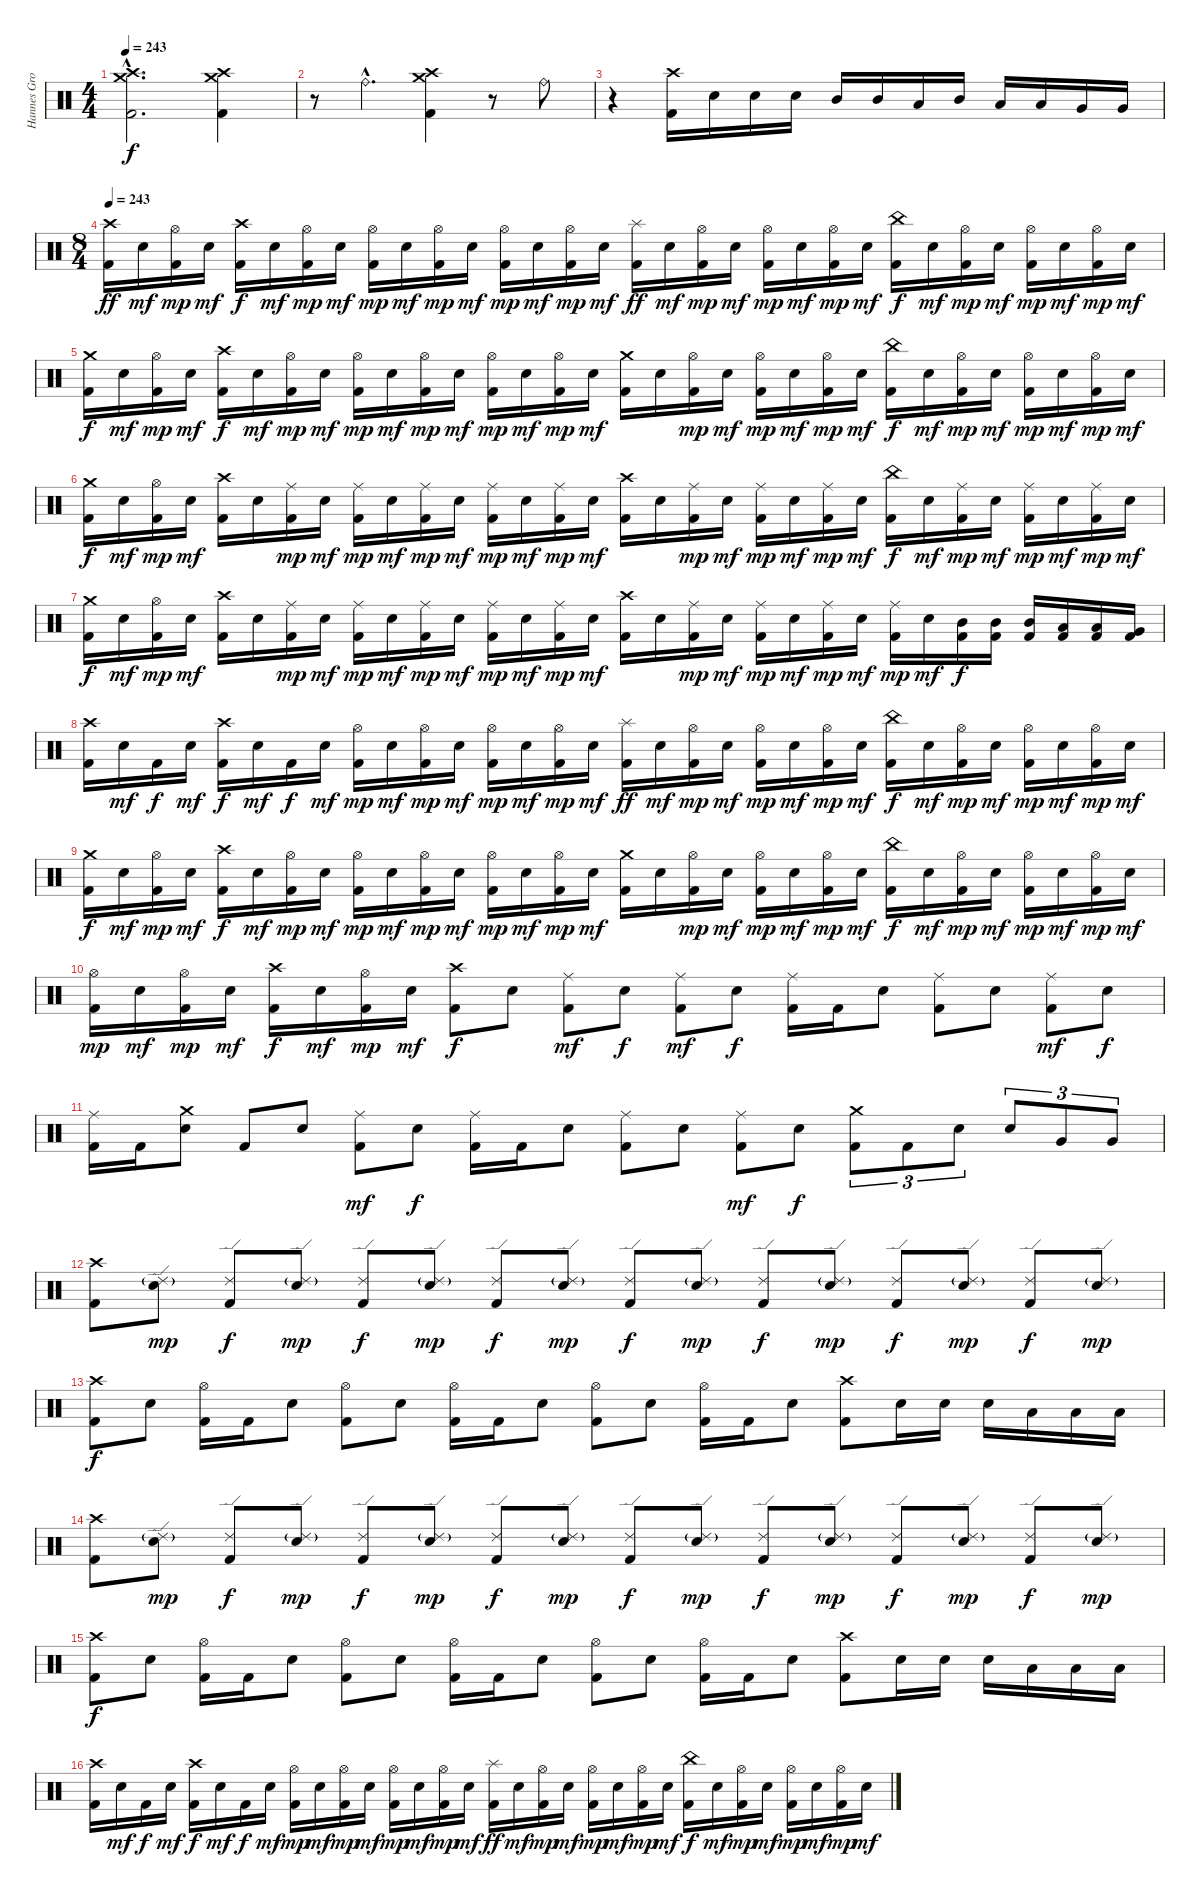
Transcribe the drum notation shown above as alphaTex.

\track ("Hannes Grossmann" "Hannes Gro") {instrument percussion}
\staff {score}
\articulation defaults
\ts (4 4)
\tempo 243
\tempo 163
\tempo 243
\clef neutral
\ks c
("Crash high (hit)"{hac} "Crash medium (hit)"{hac} "Kick (hit) 2"{hac}).2{d dy f} ("Crash high (hit)" "Crash medium (hit)" "Kick (hit) 2").4 |
r.8 "Ride (bell)"{hac}.4{d} ("Crash high (hit)" "Crash medium (hit)" "Kick (hit) 2").4 r.8 "Ride (bell)".8 |
r.4 ("Crash high (hit)" "Kick (hit) 2").16 "Snare (hit) 2".16 "Snare (hit) 2".16 "Snare (hit) 2".16 "Mid Tom (hit)".16 "Mid Tom (hit)".16 "Low Tom (hit)".16 "Mid Tom (hit)".16 "Low Tom (hit)".16 "Low Tom (hit)".16 "Very Low Tom (hit)".16 "Very Low Tom (hit)".16 |
\ts (8 4)
\tempo 243
("Crash high (hit)" "Kick (hit) 2").16{dy ff} "Snare (hit) 2".16{dy mf} ("Hi-Hat (open)" "Kick (hit) 2").16{dy mp} "Snare (hit) 2".16{dy mf} ("Crash high (hit)" "Kick (hit) 2").16{dy f} "Snare (hit) 2".16{dy mf} ("Hi-Hat (open)" "Kick (hit) 2").16{dy mp} "Snare (hit) 2".16{dy mf} ("Hi-Hat (open)" "Kick (hit) 2").16{dy mp} "Snare (hit) 2".16{dy mf} ("Hi-Hat (open)" "Kick (hit) 2").16{dy mp} "Snare (hit) 2".16{dy mf} ("Hi-Hat (open)" "Kick (hit) 2").16{dy mp} "Snare (hit) 2".16{dy mf} ("Hi-Hat (open)" "Kick (hit) 2").16{dy mp} "Snare (hit) 2".16{dy mf} ("Splash (hit)" "Kick (hit) 2").16{dy ff} "Snare (hit) 2".16{dy mf} ("Hi-Hat (open)" "Kick (hit) 2").16{dy mp} "Snare (hit) 2".16{dy mf} ("Hi-Hat (open)" "Kick (hit) 2").16{dy mp} "Snare (hit) 2".16{dy mf} ("Hi-Hat (open)" "Kick (hit) 2").16{dy mp} "Snare (hit) 2".16{dy mf} ("China (hit)" "Kick (hit) 2").16{dy f} "Snare (hit) 2".16{dy mf} ("Hi-Hat (open)" "Kick (hit) 2").16{dy mp} "Snare (hit) 2".16{dy mf} ("Hi-Hat (open)" "Kick (hit) 2").16{dy mp} "Snare (hit) 2".16{dy mf} ("Hi-Hat (open)" "Kick (hit) 2").16{dy mp} "Snare (hit) 2".16{dy mf} |
("Crash medium (hit)" "Kick (hit) 2").16{dy f} "Snare (hit) 2".16{dy mf} ("Hi-Hat (open)" "Kick (hit) 2").16{dy mp} "Snare (hit) 2".16{dy mf} ("Crash high (hit)" "Kick (hit) 2").16{dy f} "Snare (hit) 2".16{dy mf} ("Hi-Hat (open)" "Kick (hit) 2").16{dy mp} "Snare (hit) 2".16{dy mf} ("Hi-Hat (open)" "Kick (hit) 2").16{dy mp} "Snare (hit) 2".16{dy mf} ("Hi-Hat (open)" "Kick (hit) 2").16{dy mp} "Snare (hit) 2".16{dy mf} ("Hi-Hat (open)" "Kick (hit) 2").16{dy mp} "Snare (hit) 2".16{dy mf} ("Hi-Hat (open)" "Kick (hit) 2").16{dy mp} "Snare (hit) 2".16{dy mf} ("Crash medium (hit)" "Kick (hit) 2").16 "Snare (hit) 2".16 ("Hi-Hat (open)" "Kick (hit) 2").16{dy mp} "Snare (hit) 2".16{dy mf} ("Hi-Hat (open)" "Kick (hit) 2").16{dy mp} "Snare (hit) 2".16{dy mf} ("Hi-Hat (open)" "Kick (hit) 2").16{dy mp} "Snare (hit) 2".16{dy mf} ("China (hit)" "Kick (hit) 2").16{dy f} "Snare (hit) 2".16{dy mf} ("Hi-Hat (open)" "Kick (hit) 2").16{dy mp} "Snare (hit) 2".16{dy mf} ("Hi-Hat (open)" "Kick (hit) 2").16{dy mp} "Snare (hit) 2".16{dy mf} ("Hi-Hat (open)" "Kick (hit) 2").16{dy mp} "Snare (hit) 2".16{dy mf} |
("Crash medium (hit)" "Kick (hit) 2").16{dy f} "Snare (hit) 2".16{dy mf} ("Hi-Hat (open)" "Kick (hit) 2").16{dy mp} "Snare (hit) 2".16{dy mf} ("Crash high (hit)" "Kick (hit) 2").16 "Snare (hit) 2".16 ("Ride (middle)" "Kick (hit) 2").16{dy mp} "Snare (hit) 2".16{dy mf} ("Ride (middle)" "Kick (hit) 2").16{dy mp} "Snare (hit) 2".16{dy mf} ("Ride (middle)" "Kick (hit) 2").16{dy mp} "Snare (hit) 2".16{dy mf} ("Ride (middle)" "Kick (hit) 2").16{dy mp} "Snare (hit) 2".16{dy mf} ("Ride (middle)" "Kick (hit) 2").16{dy mp} "Snare (hit) 2".16{dy mf} ("Crash high (hit)" "Kick (hit) 2").16 "Snare (hit) 2".16 ("Ride (middle)" "Kick (hit) 2").16{dy mp} "Snare (hit) 2".16{dy mf} ("Ride (middle)" "Kick (hit) 2").16{dy mp} "Snare (hit) 2".16{dy mf} ("Ride (middle)" "Kick (hit) 2").16{dy mp} "Snare (hit) 2".16{dy mf} ("China (hit)" "Kick (hit) 2").16{dy f} "Snare (hit) 2".16{dy mf} ("Ride (middle)" "Kick (hit) 2").16{dy mp} "Snare (hit) 2".16{dy mf} ("Ride (middle)" "Kick (hit) 2").16{dy mp} "Snare (hit) 2".16{dy mf} ("Ride (middle)" "Kick (hit) 2").16{dy mp} "Snare (hit) 2".16{dy mf} |
("Crash medium (hit)" "Kick (hit) 2").16{dy f} "Snare (hit) 2".16{dy mf} ("Hi-Hat (open)" "Kick (hit) 2").16{dy mp} "Snare (hit) 2".16{dy mf} ("Crash high (hit)" "Kick (hit) 2").16 "Snare (hit) 2".16 ("Ride (middle)" "Kick (hit) 2").16{dy mp} "Snare (hit) 2".16{dy mf} ("Ride (middle)" "Kick (hit) 2").16{dy mp} "Snare (hit) 2".16{dy mf} ("Ride (middle)" "Kick (hit) 2").16{dy mp} "Snare (hit) 2".16{dy mf} ("Ride (middle)" "Kick (hit) 2").16{dy mp} "Snare (hit) 2".16{dy mf} ("Ride (middle)" "Kick (hit) 2").16{dy mp} "Snare (hit) 2".16{dy mf} ("Crash high (hit)" "Kick (hit) 2").16 "Snare (hit) 2".16 ("Ride (middle)" "Kick (hit) 2").16{dy mp} "Snare (hit) 2".16{dy mf} ("Ride (middle)" "Kick (hit) 2").16{dy mp} "Snare (hit) 2".16{dy mf} ("Ride (middle)" "Kick (hit) 2").16{dy mp} "Snare (hit) 2".16{dy mf} ("Ride (middle)" "Kick (hit) 2").16{dy mp} "Snare (hit) 2".16{dy mf} ("Mid Tom (hit)" "Kick (hit) 2").16{dy f} ("Mid Tom (hit)" "Kick (hit) 2").16 ("Mid Tom (hit)" "Kick (hit) 2").16 ("Low Tom (hit)" "Kick (hit) 2").16 ("Low Tom (hit)" "Kick (hit) 2").16 ("Very Low Tom (hit)" "Kick (hit) 2").16 |
("Crash high (hit)" "Kick (hit) 2").16 "Snare (hit) 2".16{dy mf} "Kick (hit) 2".16{dy f} "Snare (hit) 2".16{dy mf} ("Crash high (hit)" "Kick (hit) 2").16{dy f} "Snare (hit) 2".16{dy mf} "Kick (hit) 2".16{dy f} "Snare (hit) 2".16{dy mf} ("Hi-Hat (open)" "Kick (hit) 2").16{dy mp} "Snare (hit) 2".16{dy mf} ("Hi-Hat (open)" "Kick (hit) 2").16{dy mp} "Snare (hit) 2".16{dy mf} ("Hi-Hat (open)" "Kick (hit) 2").16{dy mp} "Snare (hit) 2".16{dy mf} ("Hi-Hat (open)" "Kick (hit) 2").16{dy mp} "Snare (hit) 2".16{dy mf} ("Splash (hit)" "Kick (hit) 2").16{dy ff} "Snare (hit) 2".16{dy mf} ("Hi-Hat (open)" "Kick (hit) 2").16{dy mp} "Snare (hit) 2".16{dy mf} ("Hi-Hat (open)" "Kick (hit) 2").16{dy mp} "Snare (hit) 2".16{dy mf} ("Hi-Hat (open)" "Kick (hit) 2").16{dy mp} "Snare (hit) 2".16{dy mf} ("China (hit)" "Kick (hit) 2").16{dy f} "Snare (hit) 2".16{dy mf} ("Hi-Hat (open)" "Kick (hit) 2").16{dy mp} "Snare (hit) 2".16{dy mf} ("Hi-Hat (open)" "Kick (hit) 2").16{dy mp} "Snare (hit) 2".16{dy mf} ("Hi-Hat (open)" "Kick (hit) 2").16{dy mp} "Snare (hit) 2".16{dy mf} |
("Crash medium (hit)" "Kick (hit) 2").16{dy f} "Snare (hit) 2".16{dy mf} ("Hi-Hat (open)" "Kick (hit) 2").16{dy mp} "Snare (hit) 2".16{dy mf} ("Crash high (hit)" "Kick (hit) 2").16{dy f} "Snare (hit) 2".16{dy mf} ("Hi-Hat (open)" "Kick (hit) 2").16{dy mp} "Snare (hit) 2".16{dy mf} ("Hi-Hat (open)" "Kick (hit) 2").16{dy mp} "Snare (hit) 2".16{dy mf} ("Hi-Hat (open)" "Kick (hit) 2").16{dy mp} "Snare (hit) 2".16{dy mf} ("Hi-Hat (open)" "Kick (hit) 2").16{dy mp} "Snare (hit) 2".16{dy mf} ("Hi-Hat (open)" "Kick (hit) 2").16{dy mp} "Snare (hit) 2".16{dy mf} ("Crash medium (hit)" "Kick (hit) 2").16 "Snare (hit) 2".16 ("Hi-Hat (open)" "Kick (hit) 2").16{dy mp} "Snare (hit) 2".16{dy mf} ("Hi-Hat (open)" "Kick (hit) 2").16{dy mp} "Snare (hit) 2".16{dy mf} ("Hi-Hat (open)" "Kick (hit) 2").16{dy mp} "Snare (hit) 2".16{dy mf} ("China (hit)" "Kick (hit) 2").16{dy f} "Snare (hit) 2".16{dy mf} ("Hi-Hat (open)" "Kick (hit) 2").16{dy mp} "Snare (hit) 2".16{dy mf} ("Hi-Hat (open)" "Kick (hit) 2").16{dy mp} "Snare (hit) 2".16{dy mf} ("Hi-Hat (open)" "Kick (hit) 2").16{dy mp} "Snare (hit) 2".16{dy mf} |
("Hi-Hat (open)" "Kick (hit) 2").16{dy mp} "Snare (hit) 2".16{dy mf} ("Hi-Hat (open)" "Kick (hit) 2").16{dy mp} "Snare (hit) 2".16{dy mf} ("Crash high (hit)" "Kick (hit) 2").16{dy f} "Snare (hit) 2".16{dy mf} ("Hi-Hat (open)" "Kick (hit) 2").16{dy mp} "Snare (hit) 2".16{dy mf} ("Crash high (hit)" "Kick (hit) 2").8{dy f} "Snare (hit) 2".8 ("Ride (middle)" "Kick (hit) 2").8{dy mf} "Snare (hit) 2".8{dy f} ("Ride (middle)" "Kick (hit) 2").8{dy mf} "Snare (hit) 2".8{dy f} ("Ride (middle)" "Kick (hit) 2").16 "Kick (hit) 2".16 "Snare (hit) 2".8 ("Ride (middle)" "Kick (hit) 2").8 "Snare (hit) 2".8 ("Ride (middle)" "Kick (hit) 2").8{dy mf} "Snare (hit) 2".8{dy f} |
("Ride (middle)" "Kick (hit) 2").16 "Kick (hit) 2".16 ("Crash medium (hit)" "Snare (hit) 2").8 "Kick (hit) 2".8 "Snare (hit) 2".8 ("Ride (middle)" "Kick (hit) 2").8{dy mf} "Snare (hit) 2".8{dy f} ("Ride (middle)" "Kick (hit) 2").16 "Kick (hit) 2".16 "Snare (hit) 2".8 ("Ride (middle)" "Kick (hit) 2").8 "Snare (hit) 2".8 ("Ride (middle)" "Kick (hit) 2").8{dy mf} "Snare (hit) 2".8{dy f} ("Crash medium (hit)" "Kick (hit) 2").8{tu (3 2)} "Kick (hit) 2".8{tu (3 2)} "Snare (hit) 2".8{tu (3 2)} "Snare (hit) 2".8{tu (3 2)} "Very Low Tom (hit)".8{tu (3 2)} "Very Low Tom (hit)".8{tu (3 2)} |
("Crash high (hit)" "Kick (hit) 2").8 ("Ride (edge) 2"{g} "Snare (hit) 2").8{dy mp} ("Ride (edge) 2" "Kick (hit) 2").8{dy f} ("Ride (edge) 2"{g} "Snare (hit) 2").8{dy mp} ("Ride (edge) 2" "Kick (hit) 2").8{dy f} ("Ride (edge) 2"{g} "Snare (hit) 2").8{dy mp} ("Ride (edge) 2" "Kick (hit) 2").8{dy f} ("Ride (edge) 2"{g} "Snare (hit) 2").8{dy mp} ("Ride (edge) 2" "Kick (hit) 2").8{dy f} ("Ride (edge) 2"{g} "Snare (hit) 2").8{dy mp} ("Ride (edge) 2" "Kick (hit) 2").8{dy f} ("Ride (edge) 2"{g} "Snare (hit) 2").8{dy mp} ("Ride (edge) 2" "Kick (hit) 2").8{dy f} ("Ride (edge) 2"{g} "Snare (hit) 2").8{dy mp} ("Ride (edge) 2" "Kick (hit) 2").8{dy f} ("Ride (edge) 2"{g} "Snare (hit) 2").8{dy mp} |
("Crash high (hit)" "Kick (hit) 2").8{dy f} "Snare (hit) 2".8 ("Hi-Hat (open)" "Kick (hit) 2").16 "Kick (hit) 2".16 "Snare (hit) 2".8 ("Hi-Hat (open)" "Kick (hit) 2").8 "Snare (hit) 2".8 ("Hi-Hat (open)" "Kick (hit) 2").16 "Kick (hit) 2".16 "Snare (hit) 2".8 ("Hi-Hat (open)" "Kick (hit) 2").8 "Snare (hit) 2".8 ("Hi-Hat (open)" "Kick (hit) 2").16 "Kick (hit) 2".16 "Snare (hit) 2".8 ("Crash high (hit)" "Kick (hit) 2").8 "Snare (hit) 2".16 "Snare (hit) 2".16 "Snare (hit) 2".16 "Low Tom (hit)".16 "Low Tom (hit)".16 "Low Tom (hit)".16 |
("Crash high (hit)" "Kick (hit) 2").8 ("Ride (edge) 2"{g} "Snare (hit) 2").8{dy mp} ("Ride (edge) 2" "Kick (hit) 2").8{dy f} ("Ride (edge) 2"{g} "Snare (hit) 2").8{dy mp} ("Ride (edge) 2" "Kick (hit) 2").8{dy f} ("Ride (edge) 2"{g} "Snare (hit) 2").8{dy mp} ("Ride (edge) 2" "Kick (hit) 2").8{dy f} ("Ride (edge) 2"{g} "Snare (hit) 2").8{dy mp} ("Ride (edge) 2" "Kick (hit) 2").8{dy f} ("Ride (edge) 2"{g} "Snare (hit) 2").8{dy mp} ("Ride (edge) 2" "Kick (hit) 2").8{dy f} ("Ride (edge) 2"{g} "Snare (hit) 2").8{dy mp} ("Ride (edge) 2" "Kick (hit) 2").8{dy f} ("Ride (edge) 2"{g} "Snare (hit) 2").8{dy mp} ("Ride (edge) 2" "Kick (hit) 2").8{dy f} ("Ride (edge) 2"{g} "Snare (hit) 2").8{dy mp} |
("Crash high (hit)" "Kick (hit) 2").8{dy f} "Snare (hit) 2".8 ("Hi-Hat (open)" "Kick (hit) 2").16 "Kick (hit) 2".16 "Snare (hit) 2".8 ("Hi-Hat (open)" "Kick (hit) 2").8 "Snare (hit) 2".8 ("Hi-Hat (open)" "Kick (hit) 2").16 "Kick (hit) 2".16 "Snare (hit) 2".8 ("Hi-Hat (open)" "Kick (hit) 2").8 "Snare (hit) 2".8 ("Hi-Hat (open)" "Kick (hit) 2").16 "Kick (hit) 2".16 "Snare (hit) 2".8 ("Crash high (hit)" "Kick (hit) 2").8 "Snare (hit) 2".16 "Snare (hit) 2".16 "Snare (hit) 2".16 "Low Tom (hit)".16 "Low Tom (hit)".16 "Low Tom (hit)".16 |
("Crash high (hit)" "Kick (hit) 2").16 "Snare (hit) 2".16{dy mf} "Kick (hit) 2".16{dy f} "Snare (hit) 2".16{dy mf} ("Crash high (hit)" "Kick (hit) 2").16{dy f} "Snare (hit) 2".16{dy mf} "Kick (hit) 2".16{dy f} "Snare (hit) 2".16{dy mf} ("Hi-Hat (open)" "Kick (hit) 2").16{dy mp} "Snare (hit) 2".16{dy mf} ("Hi-Hat (open)" "Kick (hit) 2").16{dy mp} "Snare (hit) 2".16{dy mf} ("Hi-Hat (open)" "Kick (hit) 2").16{dy mp} "Snare (hit) 2".16{dy mf} ("Hi-Hat (open)" "Kick (hit) 2").16{dy mp} "Snare (hit) 2".16{dy mf} ("Splash (hit)" "Kick (hit) 2").16{dy ff} "Snare (hit) 2".16{dy mf} ("Hi-Hat (open)" "Kick (hit) 2").16{dy mp} "Snare (hit) 2".16{dy mf} ("Hi-Hat (open)" "Kick (hit) 2").16{dy mp} "Snare (hit) 2".16{dy mf} ("Hi-Hat (open)" "Kick (hit) 2").16{dy mp} "Snare (hit) 2".16{dy mf} ("China (hit)" "Kick (hit) 2").16{dy f} "Snare (hit) 2".16{dy mf} ("Hi-Hat (open)" "Kick (hit) 2").16{dy mp} "Snare (hit) 2".16{dy mf} ("Hi-Hat (open)" "Kick (hit) 2").16{dy mp} "Snare (hit) 2".16{dy mf} ("Hi-Hat (open)" "Kick (hit) 2").16{dy mp} "Snare (hit) 2".16{dy mf}
